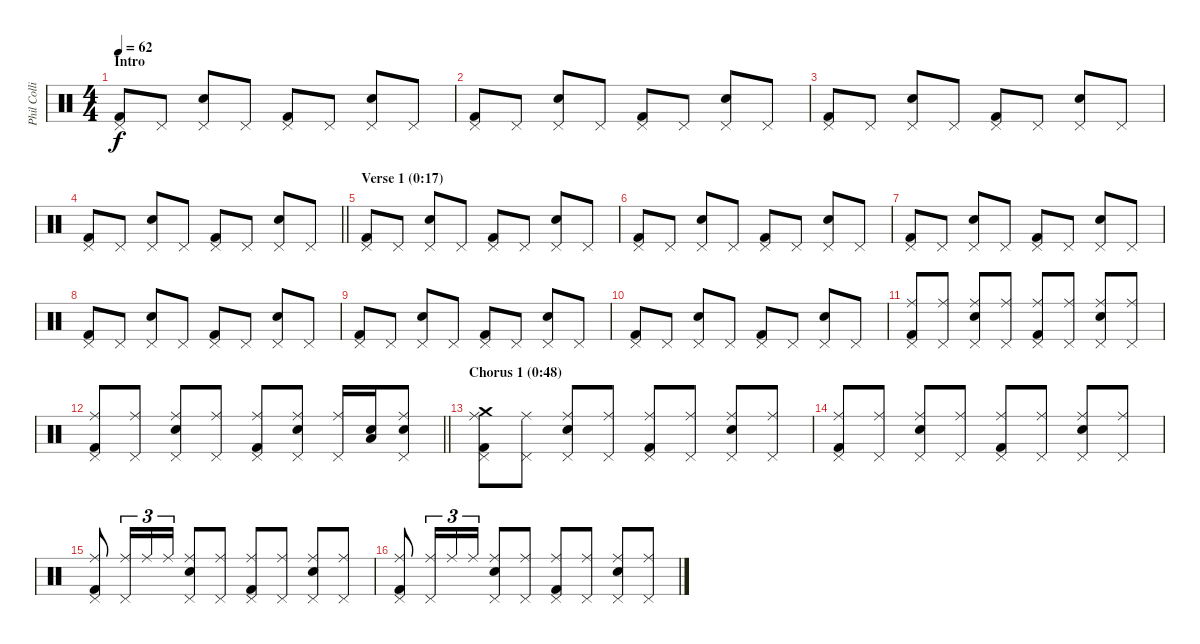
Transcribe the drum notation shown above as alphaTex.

\track ("Phil Collins (drums)" "Phil Colli") {instrument percussion}
\staff {score}
\articulation defaults
\ts (4 4)
\section ("" "Intro")
\tempo 62
\clef neutral
\ks c
("Pedal Hi-Hat (hit)" "Kick (hit) 2").8{dy f} "Pedal Hi-Hat (hit)".8 ("Pedal Hi-Hat (hit)" "Electric Snare (hit)").8 "Pedal Hi-Hat (hit)".8 ("Pedal Hi-Hat (hit)" "Kick (hit) 2").8 "Pedal Hi-Hat (hit)".8 ("Pedal Hi-Hat (hit)" "Electric Snare (hit)").8 "Pedal Hi-Hat (hit)".8 |
("Pedal Hi-Hat (hit)" "Kick (hit) 2").8 "Pedal Hi-Hat (hit)".8 ("Pedal Hi-Hat (hit)" "Electric Snare (hit)").8 "Pedal Hi-Hat (hit)".8 ("Pedal Hi-Hat (hit)" "Kick (hit) 2").8 "Pedal Hi-Hat (hit)".8 ("Pedal Hi-Hat (hit)" "Electric Snare (hit)").8 "Pedal Hi-Hat (hit)".8 |
("Pedal Hi-Hat (hit)" "Kick (hit) 2").8 "Pedal Hi-Hat (hit)".8 ("Pedal Hi-Hat (hit)" "Electric Snare (hit)").8 "Pedal Hi-Hat (hit)".8 ("Pedal Hi-Hat (hit)" "Kick (hit) 2").8 "Pedal Hi-Hat (hit)".8 ("Pedal Hi-Hat (hit)" "Electric Snare (hit)").8 "Pedal Hi-Hat (hit)".8 |
\barLineRight lightlight
("Pedal Hi-Hat (hit)" "Kick (hit) 2").8 "Pedal Hi-Hat (hit)".8 ("Pedal Hi-Hat (hit)" "Electric Snare (hit)").8 "Pedal Hi-Hat (hit)".8 ("Pedal Hi-Hat (hit)" "Kick (hit) 2").8 "Pedal Hi-Hat (hit)".8 ("Pedal Hi-Hat (hit)" "Electric Snare (hit)").8 "Pedal Hi-Hat (hit)".8 |
\section ("" "Verse 1 (0:17)")
("Pedal Hi-Hat (hit)" "Kick (hit) 2").8 "Pedal Hi-Hat (hit)".8 ("Pedal Hi-Hat (hit)" "Electric Snare (hit)").8 "Pedal Hi-Hat (hit)".8 ("Pedal Hi-Hat (hit)" "Kick (hit) 2").8 "Pedal Hi-Hat (hit)".8 ("Pedal Hi-Hat (hit)" "Electric Snare (hit)").8 "Pedal Hi-Hat (hit)".8 |
("Pedal Hi-Hat (hit)" "Kick (hit) 2").8 "Pedal Hi-Hat (hit)".8 ("Pedal Hi-Hat (hit)" "Electric Snare (hit)").8 "Pedal Hi-Hat (hit)".8 ("Pedal Hi-Hat (hit)" "Kick (hit) 2").8 "Pedal Hi-Hat (hit)".8 ("Pedal Hi-Hat (hit)" "Electric Snare (hit)").8 "Pedal Hi-Hat (hit)".8 |
("Pedal Hi-Hat (hit)" "Kick (hit) 2").8 "Pedal Hi-Hat (hit)".8 ("Pedal Hi-Hat (hit)" "Electric Snare (hit)").8 "Pedal Hi-Hat (hit)".8 ("Pedal Hi-Hat (hit)" "Kick (hit) 2").8 "Pedal Hi-Hat (hit)".8 ("Pedal Hi-Hat (hit)" "Electric Snare (hit)").8 "Pedal Hi-Hat (hit)".8 |
("Pedal Hi-Hat (hit)" "Kick (hit) 2").8 "Pedal Hi-Hat (hit)".8 ("Pedal Hi-Hat (hit)" "Electric Snare (hit)").8 "Pedal Hi-Hat (hit)".8 ("Pedal Hi-Hat (hit)" "Kick (hit) 2").8 "Pedal Hi-Hat (hit)".8 ("Pedal Hi-Hat (hit)" "Electric Snare (hit)").8 "Pedal Hi-Hat (hit)".8 |
("Pedal Hi-Hat (hit)" "Kick (hit) 2").8 "Pedal Hi-Hat (hit)".8 ("Pedal Hi-Hat (hit)" "Electric Snare (hit)").8 "Pedal Hi-Hat (hit)".8 ("Pedal Hi-Hat (hit)" "Kick (hit) 2").8 "Pedal Hi-Hat (hit)".8 ("Pedal Hi-Hat (hit)" "Electric Snare (hit)").8 "Pedal Hi-Hat (hit)".8 |
("Pedal Hi-Hat (hit)" "Kick (hit) 2").8 "Pedal Hi-Hat (hit)".8 ("Pedal Hi-Hat (hit)" "Electric Snare (hit)").8 "Pedal Hi-Hat (hit)".8 ("Pedal Hi-Hat (hit)" "Kick (hit) 2").8 "Pedal Hi-Hat (hit)".8 ("Pedal Hi-Hat (hit)" "Electric Snare (hit)").8 "Pedal Hi-Hat (hit)".8 |
("Ride (middle)" "Pedal Hi-Hat (hit)" "Kick (hit) 2").8 ("Ride (middle)" "Pedal Hi-Hat (hit)").8 ("Ride (middle)" "Pedal Hi-Hat (hit)" "Electric Snare (hit)").8 ("Ride (middle)" "Pedal Hi-Hat (hit)").8 ("Ride (middle)" "Pedal Hi-Hat (hit)" "Kick (hit) 2").8 ("Ride (middle)" "Pedal Hi-Hat (hit)").8 ("Ride (middle)" "Pedal Hi-Hat (hit)" "Electric Snare (hit)").8 ("Ride (middle)" "Pedal Hi-Hat (hit)").8 |
\barLineRight lightlight
("Ride (middle)" "Pedal Hi-Hat (hit)" "Kick (hit) 2").8 ("Ride (middle)" "Pedal Hi-Hat (hit)").8 ("Ride (middle)" "Pedal Hi-Hat (hit)" "Electric Snare (hit)").8 ("Ride (middle)" "Pedal Hi-Hat (hit)").8 ("Ride (middle)" "Pedal Hi-Hat (hit)" "Kick (hit) 2").8 ("Ride (middle)" "Pedal Hi-Hat (hit)" "Electric Snare (hit)").8 ("Ride (middle)" "Pedal Hi-Hat (hit)").16 ("Low Tom (hit)" "Electric Snare (hit)").16 ("Ride (middle)" "Pedal Hi-Hat (hit)" "Electric Snare (hit)").8 |
\section ("" "Chorus 1 (0:48)")
("Crash medium (hit)" "Ride (middle)" "Pedal Hi-Hat (hit)" "Kick (hit) 2").8 ("Ride (middle)" "Pedal Hi-Hat (hit)").8 ("Ride (middle)" "Pedal Hi-Hat (hit)" "Electric Snare (hit)").8 ("Ride (middle)" "Pedal Hi-Hat (hit)").8 ("Ride (middle)" "Pedal Hi-Hat (hit)" "Kick (hit) 2").8 ("Ride (middle)" "Pedal Hi-Hat (hit)").8 ("Ride (middle)" "Pedal Hi-Hat (hit)" "Electric Snare (hit)").8 ("Ride (middle)" "Pedal Hi-Hat (hit)").8 |
("Ride (middle)" "Pedal Hi-Hat (hit)" "Kick (hit) 2").8 ("Ride (middle)" "Pedal Hi-Hat (hit)").8 ("Ride (middle)" "Pedal Hi-Hat (hit)" "Electric Snare (hit)").8 ("Ride (middle)" "Pedal Hi-Hat (hit)").8 ("Ride (middle)" "Pedal Hi-Hat (hit)" "Kick (hit) 2").8 ("Ride (middle)" "Pedal Hi-Hat (hit)").8 ("Ride (middle)" "Pedal Hi-Hat (hit)" "Electric Snare (hit)").8 ("Ride (middle)" "Pedal Hi-Hat (hit)").8 |
("Ride (middle)" "Pedal Hi-Hat (hit)" "Kick (hit) 2").8 ("Ride (middle)" "Pedal Hi-Hat (hit)").16{tu (3 2)} "Ride (middle)".16{tu (3 2)} "Ride (middle)".16{tu (3 2)} ("Ride (middle)" "Pedal Hi-Hat (hit)" "Electric Snare (hit)").8 ("Ride (middle)" "Pedal Hi-Hat (hit)").8 ("Ride (middle)" "Pedal Hi-Hat (hit)" "Kick (hit) 2").8 ("Ride (middle)" "Pedal Hi-Hat (hit)").8 ("Ride (middle)" "Pedal Hi-Hat (hit)" "Electric Snare (hit)").8 ("Ride (middle)" "Pedal Hi-Hat (hit)").8 |
("Ride (middle)" "Pedal Hi-Hat (hit)" "Kick (hit) 2").8 ("Ride (middle)" "Pedal Hi-Hat (hit)").16{tu (3 2)} "Ride (middle)".16{tu (3 2)} "Ride (middle)".16{tu (3 2)} ("Ride (middle)" "Pedal Hi-Hat (hit)" "Electric Snare (hit)").8 ("Ride (middle)" "Pedal Hi-Hat (hit)").8 ("Ride (middle)" "Pedal Hi-Hat (hit)" "Kick (hit) 2").8 ("Ride (middle)" "Pedal Hi-Hat (hit)").8 ("Ride (middle)" "Pedal Hi-Hat (hit)" "Electric Snare (hit)").8 ("Ride (middle)" "Pedal Hi-Hat (hit)").8
